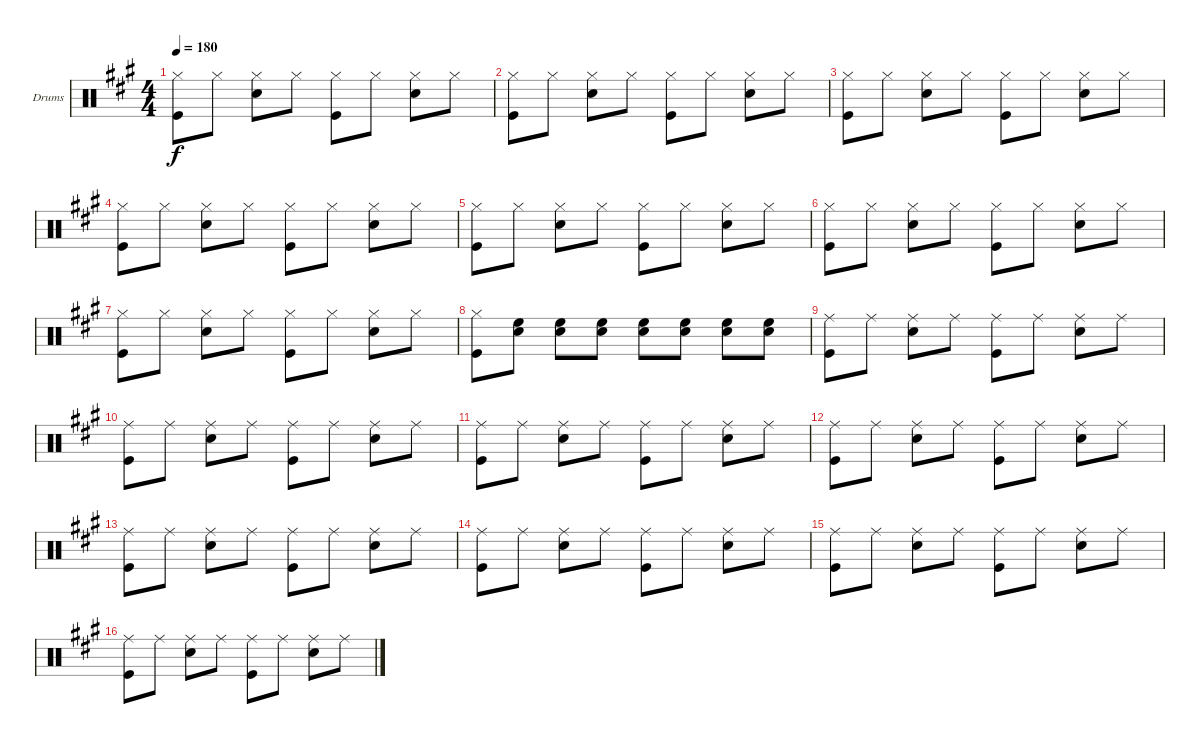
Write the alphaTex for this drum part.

\bracketExtendMode groupsimilarinstruments
\firstSystemTrackNameOrientation horizontal
\otherSystemsTrackNameOrientation horizontal
\track ("Drumkit" "Drums") {instrument percussion}
\staff {score}
\articulation defaults
\ts (4 4)
\tempo 180
\clef neutral
\ks a
("Hi-Hat (closed)" "Kick (hit)").8{dy f} "Hi-Hat (closed)".8 ("Hi-Hat (closed)" "Snare (hit) 2").8 "Hi-Hat (closed)".8 ("Hi-Hat (closed)" "Kick (hit)").8 "Hi-Hat (closed)".8 ("Hi-Hat (closed)" "Snare (hit) 2").8 "Hi-Hat (closed)".8 |
("Hi-Hat (closed)" "Kick (hit)").8 "Hi-Hat (closed)".8 ("Hi-Hat (closed)" "Snare (hit) 2").8 "Hi-Hat (closed)".8 ("Hi-Hat (closed)" "Kick (hit)").8 "Hi-Hat (closed)".8 ("Hi-Hat (closed)" "Snare (hit) 2").8 "Hi-Hat (closed)".8 |
("Hi-Hat (closed)" "Kick (hit)").8 "Hi-Hat (closed)".8 ("Hi-Hat (closed)" "Snare (hit) 2").8 "Hi-Hat (closed)".8 ("Hi-Hat (closed)" "Kick (hit)").8 "Hi-Hat (closed)".8 ("Hi-Hat (closed)" "Snare (hit) 2").8 "Hi-Hat (closed)".8 |
("Hi-Hat (closed)" "Kick (hit)").8 "Hi-Hat (closed)".8 ("Hi-Hat (closed)" "Snare (hit) 2").8 "Hi-Hat (closed)".8 ("Hi-Hat (closed)" "Kick (hit)").8 "Hi-Hat (closed)".8 ("Hi-Hat (closed)" "Snare (hit) 2").8 "Hi-Hat (closed)".8 |
("Hi-Hat (closed)" "Kick (hit)").8 "Hi-Hat (closed)".8 ("Hi-Hat (closed)" "Snare (hit) 2").8 "Hi-Hat (closed)".8 ("Hi-Hat (closed)" "Kick (hit)").8 "Hi-Hat (closed)".8 ("Hi-Hat (closed)" "Snare (hit) 2").8 "Hi-Hat (closed)".8 |
("Hi-Hat (closed)" "Kick (hit)").8 "Hi-Hat (closed)".8 ("Hi-Hat (closed)" "Snare (hit) 2").8 "Hi-Hat (closed)".8 ("Hi-Hat (closed)" "Kick (hit)").8 "Hi-Hat (closed)".8 ("Hi-Hat (closed)" "Snare (hit) 2").8 "Hi-Hat (closed)".8 |
("Hi-Hat (closed)" "Kick (hit)").8 "Hi-Hat (closed)".8 ("Hi-Hat (closed)" "Snare (hit) 2").8 "Hi-Hat (closed)".8 ("Hi-Hat (closed)" "Kick (hit)").8 "Hi-Hat (closed)".8 ("Hi-Hat (closed)" "Snare (hit) 2").8 "Hi-Hat (closed)".8 |
("Hi-Hat (closed)" "Kick (hit)").8 ("High Floor Tom (hit)" "Snare (hit) 2").8 ("High Floor Tom (hit)" "Snare (hit) 2").8 ("High Floor Tom (hit)" "Snare (hit) 2").8 ("High Floor Tom (hit)" "Snare (hit) 2").8 ("High Floor Tom (hit)" "Snare (hit) 2").8 ("High Floor Tom (hit)" "Snare (hit) 2").8 ("High Floor Tom (hit)" "Snare (hit) 2").8 |
("Ride (middle)" "Kick (hit)").8 "Ride (middle)".8 ("Ride (middle)" "Snare (hit) 2").8 "Ride (middle)".8 ("Ride (middle)" "Kick (hit)").8 "Ride (middle)".8 ("Ride (middle)" "Snare (hit) 2").8 "Ride (middle)".8 |
("Ride (middle)" "Kick (hit)").8 "Ride (middle)".8 ("Ride (middle)" "Snare (hit) 2").8 "Ride (middle)".8 ("Ride (middle)" "Kick (hit)").8 "Ride (middle)".8 ("Ride (middle)" "Snare (hit) 2").8 "Ride (middle)".8 |
("Ride (middle)" "Kick (hit)").8 "Ride (middle)".8 ("Ride (middle)" "Snare (hit) 2").8 "Ride (middle)".8 ("Ride (middle)" "Kick (hit)").8 "Ride (middle)".8 ("Ride (middle)" "Snare (hit) 2").8 "Ride (middle)".8 |
("Ride (middle)" "Kick (hit)").8 "Ride (middle)".8 ("Ride (middle)" "Snare (hit) 2").8 "Ride (middle)".8 ("Ride (middle)" "Kick (hit)").8 "Ride (middle)".8 ("Ride (middle)" "Snare (hit) 2").8 "Ride (middle)".8 |
("Ride (middle)" "Kick (hit)").8 "Ride (middle)".8 ("Ride (middle)" "Snare (hit) 2").8 "Ride (middle)".8 ("Ride (middle)" "Kick (hit)").8 "Ride (middle)".8 ("Ride (middle)" "Snare (hit) 2").8 "Ride (middle)".8 |
("Ride (middle)" "Kick (hit)").8 "Ride (middle)".8 ("Ride (middle)" "Snare (hit) 2").8 "Ride (middle)".8 ("Ride (middle)" "Kick (hit)").8 "Ride (middle)".8 ("Ride (middle)" "Snare (hit) 2").8 "Ride (middle)".8 |
("Ride (middle)" "Kick (hit)").8 "Ride (middle)".8 ("Ride (middle)" "Snare (hit) 2").8 "Ride (middle)".8 ("Ride (middle)" "Kick (hit)").8 "Ride (middle)".8 ("Ride (middle)" "Snare (hit) 2").8 "Ride (middle)".8 |
("Ride (middle)" "Kick (hit)").8 "Ride (middle)".8 ("Ride (middle)" "Snare (hit) 2").8 "Ride (middle)".8 ("Ride (middle)" "Kick (hit)").8 "Ride (middle)".8 ("Ride (middle)" "Snare (hit) 2").8 "Ride (middle)".8
